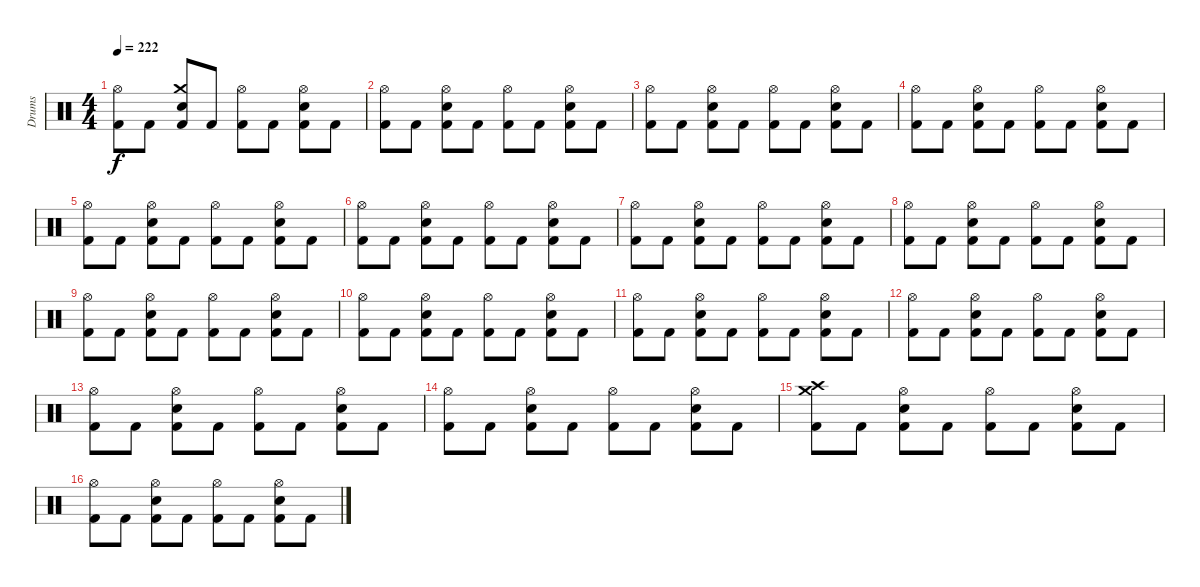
\track ("Drums" "Drums") {instrument percussion}
\staff {score}
\articulation defaults
\ts (4 4)
\tempo 222
\clef neutral
\ks c
("Hi-Hat (open)" "Kick (hit) 2").8{dy f} "Kick (hit) 2".8 ("Crash medium (hit)" "Electric Snare (hit)" "Kick (hit) 2").8 "Kick (hit) 2".8 ("Hi-Hat (open)" "Kick (hit) 2").8 "Kick (hit) 2".8 ("Hi-Hat (open)" "Electric Snare (hit)" "Kick (hit) 2").8 "Kick (hit) 2".8 |
("Hi-Hat (open)" "Kick (hit) 2").8 "Kick (hit) 2".8 ("Hi-Hat (open)" "Electric Snare (hit)" "Kick (hit) 2").8 "Kick (hit) 2".8 ("Hi-Hat (open)" "Kick (hit) 2").8 "Kick (hit) 2".8 ("Hi-Hat (open)" "Electric Snare (hit)" "Kick (hit) 2").8 "Kick (hit) 2".8 |
("Hi-Hat (open)" "Kick (hit) 2").8 "Kick (hit) 2".8 ("Hi-Hat (open)" "Electric Snare (hit)" "Kick (hit) 2").8 "Kick (hit) 2".8 ("Hi-Hat (open)" "Kick (hit) 2").8 "Kick (hit) 2".8 ("Hi-Hat (open)" "Electric Snare (hit)" "Kick (hit) 2").8 "Kick (hit) 2".8 |
("Hi-Hat (open)" "Kick (hit) 2").8 "Kick (hit) 2".8 ("Hi-Hat (open)" "Electric Snare (hit)" "Kick (hit) 2").8 "Kick (hit) 2".8 ("Hi-Hat (open)" "Kick (hit) 2").8 "Kick (hit) 2".8 ("Hi-Hat (open)" "Electric Snare (hit)" "Kick (hit) 2").8 "Kick (hit) 2".8 |
("Hi-Hat (open)" "Kick (hit) 2").8 "Kick (hit) 2".8 ("Hi-Hat (open)" "Electric Snare (hit)" "Kick (hit) 2").8 "Kick (hit) 2".8 ("Hi-Hat (open)" "Kick (hit) 2").8 "Kick (hit) 2".8 ("Hi-Hat (open)" "Electric Snare (hit)" "Kick (hit) 2").8 "Kick (hit) 2".8 |
("Hi-Hat (open)" "Kick (hit) 2").8 "Kick (hit) 2".8 ("Hi-Hat (open)" "Electric Snare (hit)" "Kick (hit) 2").8 "Kick (hit) 2".8 ("Hi-Hat (open)" "Kick (hit) 2").8 "Kick (hit) 2".8 ("Hi-Hat (open)" "Electric Snare (hit)" "Kick (hit) 2").8 "Kick (hit) 2".8 |
("Hi-Hat (open)" "Kick (hit) 2").8 "Kick (hit) 2".8 ("Hi-Hat (open)" "Electric Snare (hit)" "Kick (hit) 2").8 "Kick (hit) 2".8 ("Hi-Hat (open)" "Kick (hit) 2").8 "Kick (hit) 2".8 ("Hi-Hat (open)" "Electric Snare (hit)" "Kick (hit) 2").8 "Kick (hit) 2".8 |
("Hi-Hat (open)" "Kick (hit) 2").8 "Kick (hit) 2".8 ("Hi-Hat (open)" "Electric Snare (hit)" "Kick (hit) 2").8 "Kick (hit) 2".8 ("Hi-Hat (open)" "Kick (hit) 2").8 "Kick (hit) 2".8 ("Hi-Hat (open)" "Electric Snare (hit)" "Kick (hit) 2").8 "Kick (hit) 2".8 |
("Hi-Hat (open)" "Kick (hit) 2").8 "Kick (hit) 2".8 ("Hi-Hat (open)" "Electric Snare (hit)" "Kick (hit) 2").8 "Kick (hit) 2".8 ("Hi-Hat (open)" "Kick (hit) 2").8 "Kick (hit) 2".8 ("Hi-Hat (open)" "Electric Snare (hit)" "Kick (hit) 2").8 "Kick (hit) 2".8 |
("Hi-Hat (open)" "Kick (hit) 2").8 "Kick (hit) 2".8 ("Hi-Hat (open)" "Electric Snare (hit)" "Kick (hit) 2").8 "Kick (hit) 2".8 ("Hi-Hat (open)" "Kick (hit) 2").8 "Kick (hit) 2".8 ("Hi-Hat (open)" "Electric Snare (hit)" "Kick (hit) 2").8 "Kick (hit) 2".8 |
("Hi-Hat (open)" "Kick (hit) 2").8 "Kick (hit) 2".8 ("Hi-Hat (open)" "Electric Snare (hit)" "Kick (hit) 2").8 "Kick (hit) 2".8 ("Hi-Hat (open)" "Kick (hit) 2").8 "Kick (hit) 2".8 ("Hi-Hat (open)" "Electric Snare (hit)" "Kick (hit) 2").8 "Kick (hit) 2".8 |
("Hi-Hat (open)" "Kick (hit) 2").8 "Kick (hit) 2".8 ("Hi-Hat (open)" "Electric Snare (hit)" "Kick (hit) 2").8 "Kick (hit) 2".8 ("Hi-Hat (open)" "Kick (hit) 2").8 "Kick (hit) 2".8 ("Hi-Hat (open)" "Electric Snare (hit)" "Kick (hit) 2").8 "Kick (hit) 2".8 |
("Hi-Hat (open)" "Kick (hit) 2").8 "Kick (hit) 2".8 ("Hi-Hat (open)" "Electric Snare (hit)" "Kick (hit) 2").8 "Kick (hit) 2".8 ("Hi-Hat (open)" "Kick (hit) 2").8 "Kick (hit) 2".8 ("Hi-Hat (open)" "Electric Snare (hit)" "Kick (hit) 2").8 "Kick (hit) 2".8 |
("Hi-Hat (open)" "Kick (hit) 2").8 "Kick (hit) 2".8 ("Hi-Hat (open)" "Electric Snare (hit)" "Kick (hit) 2").8 "Kick (hit) 2".8 ("Hi-Hat (open)" "Kick (hit) 2").8 "Kick (hit) 2".8 ("Hi-Hat (open)" "Electric Snare (hit)" "Kick (hit) 2").8 "Kick (hit) 2".8 |
("Crash medium (hit)" "Crash high (hit)" "Kick (hit) 2").8 "Kick (hit) 2".8 ("Hi-Hat (open)" "Electric Snare (hit)" "Kick (hit) 2").8 "Kick (hit) 2".8 ("Hi-Hat (open)" "Kick (hit) 2").8 "Kick (hit) 2".8 ("Hi-Hat (open)" "Electric Snare (hit)" "Kick (hit) 2").8 "Kick (hit) 2".8 |
("Hi-Hat (open)" "Kick (hit) 2").8 "Kick (hit) 2".8 ("Hi-Hat (open)" "Electric Snare (hit)" "Kick (hit) 2").8 "Kick (hit) 2".8 ("Hi-Hat (open)" "Kick (hit) 2").8 "Kick (hit) 2".8 ("Hi-Hat (open)" "Electric Snare (hit)" "Kick (hit) 2").8 "Kick (hit) 2".8
